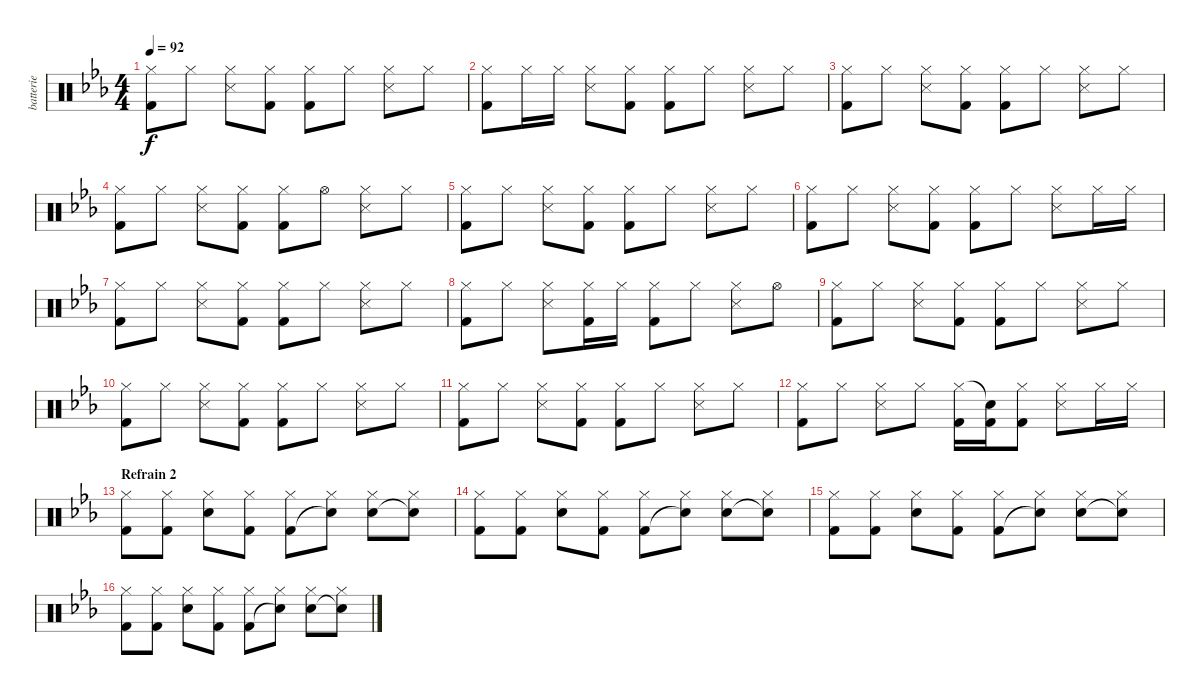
\track ("batterie" "batterie") {instrument percussion}
\staff {score}
\articulation defaults
\ts (4 4)
\tempo 92
\clef neutral
\ks eb
("Kick (hit) 2" "Hi-Hat (closed)").8{dy f} "Hi-Hat (closed)".8 ("Snare (side stick) 3" "Hi-Hat (closed)").8 ("Kick (hit) 2" "Hi-Hat (closed)").8 ("Kick (hit) 2" "Hi-Hat (closed)").8 "Hi-Hat (closed)".8 ("Snare (side stick) 3" "Hi-Hat (closed)").8 "Hi-Hat (closed)".8 |
("Hi-Hat (closed)" "Kick (hit) 2").8 "Hi-Hat (closed)".16 "Hi-Hat (closed)".16 ("Hi-Hat (closed)" "Snare (side stick) 3").8 ("Hi-Hat (closed)" "Kick (hit) 2").8 ("Hi-Hat (closed)" "Kick (hit) 2").8 "Hi-Hat (closed)".8 ("Hi-Hat (closed)" "Snare (side stick) 3").8 "Hi-Hat (closed)".8 |
("Kick (hit) 2" "Hi-Hat (closed)").8 "Hi-Hat (closed)".8 ("Snare (side stick) 3" "Hi-Hat (closed)").8 ("Kick (hit) 2" "Hi-Hat (closed)").8 ("Kick (hit) 2" "Hi-Hat (closed)").8 "Hi-Hat (closed)".8 ("Snare (side stick) 3" "Hi-Hat (closed)").8 "Hi-Hat (closed)".8 |
("Kick (hit) 2" "Hi-Hat (closed)").8 "Hi-Hat (closed)".8 ("Snare (side stick) 3" "Hi-Hat (closed)").8 ("Kick (hit) 2" "Hi-Hat (closed)").8 ("Kick (hit) 2" "Hi-Hat (closed)").8 "Hi-Hat (open)".8 ("Snare (side stick) 3" "Hi-Hat (closed)").8 "Hi-Hat (closed)".8 |
("Kick (hit) 2" "Hi-Hat (closed)").8 "Hi-Hat (closed)".8 ("Snare (side stick) 3" "Hi-Hat (closed)").8 ("Kick (hit) 2" "Hi-Hat (closed)").8 ("Kick (hit) 2" "Hi-Hat (closed)").8 "Hi-Hat (closed)".8 ("Snare (side stick) 3" "Hi-Hat (closed)").8 "Hi-Hat (closed)".8 |
("Kick (hit) 2" "Hi-Hat (closed)").8 "Hi-Hat (closed)".8 ("Snare (side stick) 3" "Hi-Hat (closed)").8 ("Kick (hit) 2" "Hi-Hat (closed)").8 ("Kick (hit) 2" "Hi-Hat (closed)").8 "Hi-Hat (closed)".8 ("Snare (side stick) 3" "Hi-Hat (closed)").8 "Hi-Hat (closed)".16 "Hi-Hat (closed)".16 |
("Kick (hit) 2" "Hi-Hat (closed)").8 "Hi-Hat (closed)".8 ("Snare (side stick) 3" "Hi-Hat (closed)").8 ("Kick (hit) 2" "Hi-Hat (closed)").8 ("Kick (hit) 2" "Hi-Hat (closed)").8 "Hi-Hat (closed)".8 ("Snare (side stick) 3" "Hi-Hat (closed)").8 "Hi-Hat (closed)".8 |
("Kick (hit) 2" "Hi-Hat (closed)").8 "Hi-Hat (closed)".8 ("Snare (side stick) 3" "Hi-Hat (closed)").8 ("Kick (hit) 2" "Hi-Hat (closed)").16 "Hi-Hat (closed)".16 ("Kick (hit) 2" "Hi-Hat (closed)").8 "Hi-Hat (closed)".8 ("Snare (side stick) 3" "Hi-Hat (closed)").8 "Hi-Hat (open)".8 |
("Kick (hit) 2" "Hi-Hat (closed)").8 "Hi-Hat (closed)".8 ("Snare (side stick) 3" "Hi-Hat (closed)").8 ("Kick (hit) 2" "Hi-Hat (closed)").8 ("Kick (hit) 2" "Hi-Hat (closed)").8 "Hi-Hat (closed)".8 ("Snare (side stick) 3" "Hi-Hat (closed)").8 "Hi-Hat (closed)".8 |
("Kick (hit) 2" "Hi-Hat (closed)").8 "Hi-Hat (closed)".8 ("Snare (side stick) 3" "Hi-Hat (closed)").8 ("Kick (hit) 2" "Hi-Hat (closed)").8 ("Kick (hit) 2" "Hi-Hat (closed)").8 "Hi-Hat (closed)".8 ("Snare (side stick) 3" "Hi-Hat (closed)").8 "Hi-Hat (closed)".8 |
("Kick (hit) 2" "Hi-Hat (closed)").8 "Hi-Hat (closed)".8 ("Snare (side stick) 3" "Hi-Hat (closed)").8 ("Kick (hit) 2" "Hi-Hat (closed)").8 ("Kick (hit) 2" "Hi-Hat (closed)").8 "Hi-Hat (closed)".8 ("Snare (side stick) 3" "Hi-Hat (closed)").8 "Hi-Hat (closed)".8 |
("Kick (hit) 2" "Hi-Hat (closed)").8 "Hi-Hat (closed)".8 ("Snare (side stick) 3" "Hi-Hat (closed)").8 "Hi-Hat (closed)".8 ("Kick (hit) 2" "Hi-Hat (closed)").16 ("Kick (hit) 2" "Snare (hit)"{t}).16 ("Kick (hit) 2" "Hi-Hat (closed)").8 ("Snare (side stick) 3" "Hi-Hat (closed)").8 "Hi-Hat (closed)".16 "Hi-Hat (closed)".16 |
\section ("" "Refrain 2")
("Kick (hit) 2" "Hi-Hat (closed)").8 ("Kick (hit) 2" "Hi-Hat (closed)").8 ("Snare (hit) 2" "Hi-Hat (closed)").8 ("Kick (hit) 2" "Hi-Hat (closed)").8 ("Kick (hit) 2" "Hi-Hat (closed)").8 ("Snare (hit)"{t} "Hi-Hat (closed)").8 ("Snare (hit) 2" "Hi-Hat (closed)").8 ("Snare (hit)"{t} "Hi-Hat (closed)").8 |
("Kick (hit) 2" "Hi-Hat (closed)").8 ("Kick (hit) 2" "Hi-Hat (closed)").8 ("Snare (hit) 2" "Hi-Hat (closed)").8 ("Kick (hit) 2" "Hi-Hat (closed)").8 ("Kick (hit) 2" "Hi-Hat (closed)").8 ("Snare (hit)"{t} "Hi-Hat (closed)").8 ("Snare (hit) 2" "Hi-Hat (closed)").8 ("Snare (hit)"{t} "Hi-Hat (closed)").8 |
("Kick (hit) 2" "Hi-Hat (closed)").8 ("Kick (hit) 2" "Hi-Hat (closed)").8 ("Snare (hit) 2" "Hi-Hat (closed)").8 ("Kick (hit) 2" "Hi-Hat (closed)").8 ("Kick (hit) 2" "Hi-Hat (closed)").8 ("Snare (hit)"{t} "Hi-Hat (closed)").8 ("Snare (hit) 2" "Hi-Hat (closed)").8 ("Snare (hit)"{t} "Hi-Hat (closed)").8 |
("Kick (hit) 2" "Hi-Hat (closed)").8 ("Kick (hit) 2" "Hi-Hat (closed)").8 ("Snare (hit) 2" "Hi-Hat (closed)").8 ("Kick (hit) 2" "Hi-Hat (closed)").8 ("Kick (hit) 2" "Hi-Hat (closed)").8 ("Snare (hit)"{t} "Hi-Hat (closed)").8 ("Snare (hit) 2" "Hi-Hat (closed)").8 ("Snare (hit)"{t} "Hi-Hat (closed)").8
